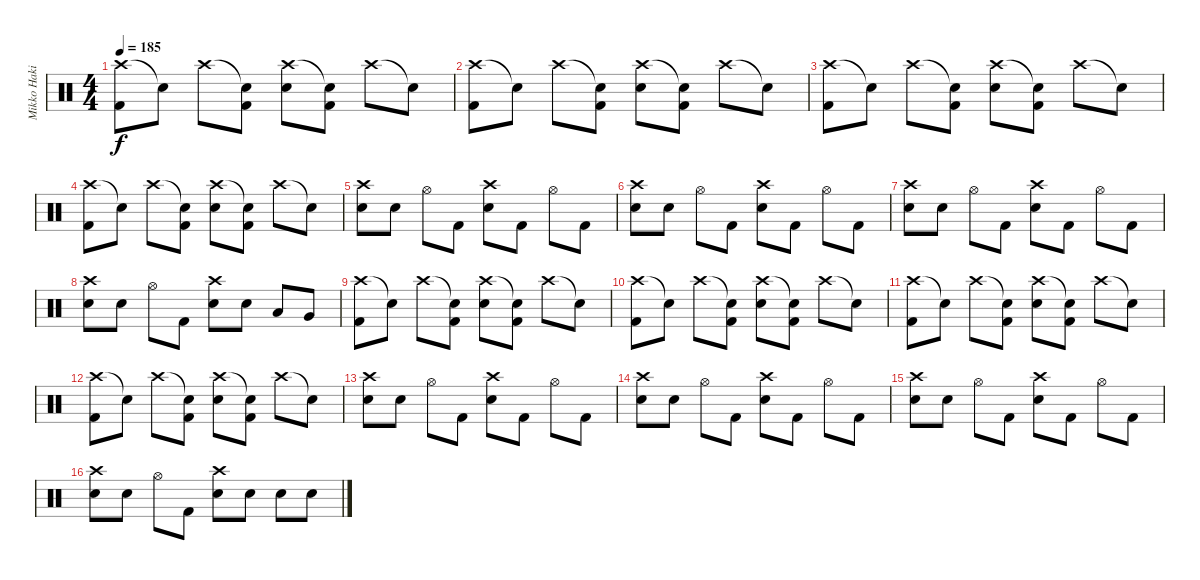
\track ("Mikko Hakila" "Mikko Haki") {instrument percussion}
\staff {score}
\articulation defaults
\ts (4 4)
\tempo 185
\clef neutral
\ks c
("Crash high (hit)" "Kick (hit) 2").8{dy f} "Snare (hit)"{t}.8 "Crash high (hit)".8 ("Snare (hit)"{t} "Kick (hit) 2").8 ("Crash high (hit)" "Snare (hit) 2").8 ("Snare (hit)"{t} "Kick (hit) 2").8 "Crash high (hit)".8 "Snare (hit)"{t}.8 |
("Crash high (hit)" "Kick (hit) 2").8 "Snare (hit)"{t}.8 "Crash high (hit)".8 ("Snare (hit)"{t} "Kick (hit) 2").8 ("Crash high (hit)" "Snare (hit) 2").8 ("Snare (hit)"{t} "Kick (hit) 2").8 "Crash high (hit)".8 "Snare (hit)"{t}.8 |
("Crash high (hit)" "Kick (hit) 2").8 "Snare (hit)"{t}.8 "Crash high (hit)".8 ("Snare (hit)"{t} "Kick (hit) 2").8 ("Crash high (hit)" "Snare (hit) 2").8 ("Snare (hit)"{t} "Kick (hit) 2").8 "Crash high (hit)".8 "Snare (hit)"{t}.8 |
("Crash high (hit)" "Kick (hit) 2").8 "Snare (hit)"{t}.8 "Crash high (hit)".8 ("Snare (hit)"{t} "Kick (hit) 2").8 ("Crash high (hit)" "Snare (hit) 2").8 ("Snare (hit)"{t} "Kick (hit) 2").8 "Crash high (hit)".8 "Snare (hit)"{t}.8 |
("Crash high (hit)" "Snare (hit) 2").8 "Snare (hit) 2".8 "Hi-Hat (open)".8 "Kick (hit) 2".8 ("Crash high (hit)" "Snare (hit) 2").8 "Kick (hit) 2".8 "Hi-Hat (open)".8 "Kick (hit) 2".8 |
("Crash high (hit)" "Snare (hit) 2").8 "Snare (hit) 2".8 "Hi-Hat (open)".8 "Kick (hit) 2".8 ("Crash high (hit)" "Snare (hit) 2").8 "Kick (hit) 2".8 "Hi-Hat (open)".8 "Kick (hit) 2".8 |
("Crash high (hit)" "Snare (hit) 2").8 "Snare (hit) 2".8 "Hi-Hat (open)".8 "Kick (hit) 2".8 ("Crash high (hit)" "Snare (hit) 2").8 "Kick (hit) 2".8 "Hi-Hat (open)".8 "Kick (hit) 2".8 |
("Crash high (hit)" "Snare (hit) 2").8 "Snare (hit) 2".8 "Hi-Hat (open)".8 "Kick (hit) 2".8 ("Crash high (hit)" "Snare (hit) 2").8 "Snare (hit) 2".8 "Low Tom (hit)".8 "Very Low Tom (hit)".8 |
("Crash high (hit)" "Kick (hit) 2").8 "Snare (hit)"{t}.8 "Crash high (hit)".8 ("Snare (hit)"{t} "Kick (hit) 2").8 ("Crash high (hit)" "Snare (hit) 2").8 ("Snare (hit)"{t} "Kick (hit) 2").8 "Crash high (hit)".8 "Snare (hit)"{t}.8 |
("Crash high (hit)" "Kick (hit) 2").8 "Snare (hit)"{t}.8 "Crash high (hit)".8 ("Snare (hit)"{t} "Kick (hit) 2").8 ("Crash high (hit)" "Snare (hit) 2").8 ("Snare (hit)"{t} "Kick (hit) 2").8 "Crash high (hit)".8 "Snare (hit)"{t}.8 |
("Crash high (hit)" "Kick (hit) 2").8 "Snare (hit)"{t}.8 "Crash high (hit)".8 ("Snare (hit)"{t} "Kick (hit) 2").8 ("Crash high (hit)" "Snare (hit) 2").8 ("Snare (hit)"{t} "Kick (hit) 2").8 "Crash high (hit)".8 "Snare (hit)"{t}.8 |
("Crash high (hit)" "Kick (hit) 2").8 "Snare (hit)"{t}.8 "Crash high (hit)".8 ("Snare (hit)"{t} "Kick (hit) 2").8 ("Crash high (hit)" "Snare (hit) 2").8 ("Snare (hit)"{t} "Kick (hit) 2").8 "Crash high (hit)".8 "Snare (hit)"{t}.8 |
("Crash high (hit)" "Snare (hit) 2").8 "Snare (hit) 2".8 "Hi-Hat (open)".8 "Kick (hit) 2".8 ("Crash high (hit)" "Snare (hit) 2").8 "Kick (hit) 2".8 "Hi-Hat (open)".8 "Kick (hit) 2".8 |
("Crash high (hit)" "Snare (hit) 2").8 "Snare (hit) 2".8 "Hi-Hat (open)".8 "Kick (hit) 2".8 ("Crash high (hit)" "Snare (hit) 2").8 "Kick (hit) 2".8 "Hi-Hat (open)".8 "Kick (hit) 2".8 |
("Crash high (hit)" "Snare (hit) 2").8 "Snare (hit) 2".8 "Hi-Hat (open)".8 "Kick (hit) 2".8 ("Crash high (hit)" "Snare (hit) 2").8 "Kick (hit) 2".8 "Hi-Hat (open)".8 "Kick (hit) 2".8 |
("Crash high (hit)" "Snare (hit) 2").8 "Snare (hit) 2".8 "Hi-Hat (open)".8 "Kick (hit) 2".8 ("Crash high (hit)" "Snare (hit) 2").8 "Snare (hit) 2".8 "Snare (hit) 2".8 "Snare (hit) 2".8
